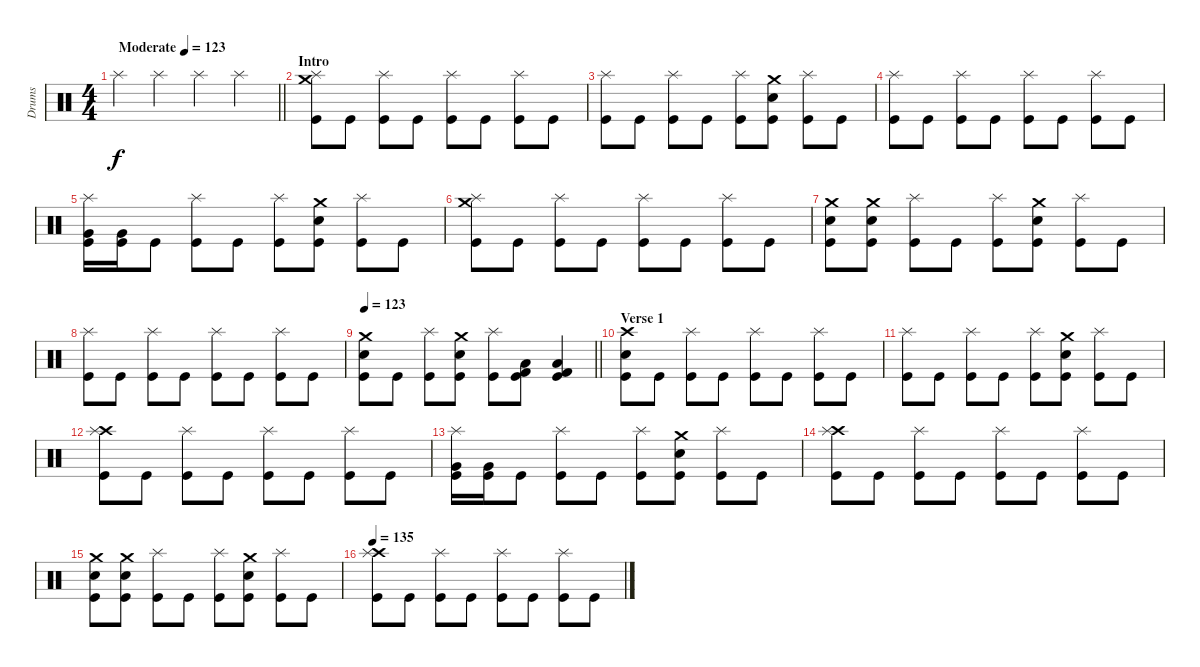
\track ("Drums" "Drums") {instrument percussion}
\staff {score}
\articulation defaults
\ts (4 4)
\tempo (123 "Moderate")
\tempo 117
\tempo (123 "Moderate")
\clef neutral
\barLineRight lightlight
\ks c "Splash (hit)".4{dy f} "Splash (hit)".4 "Splash (hit)".4 "Splash (hit)".4
|
\section ("" "Intro")
("Crash medium (hit)" "Splash (hit)" "Kick (hit)").8 "Kick (hit)".8 ("Splash (hit)" "Kick (hit)").8 "Kick (hit)".8 ("Splash (hit)" "Kick (hit)").8 "Kick (hit)".8 ("Splash (hit)" "Kick (hit)").8 "Kick (hit)".8 |
("Splash (hit)" "Kick (hit)").8 "Kick (hit)".8 ("Splash (hit)" "Kick (hit)").8 "Kick (hit)".8 ("Splash (hit)" "Kick (hit)").8 ("Crash medium (hit)" "Snare (hit) 2" "Kick (hit)").8 ("Splash (hit)" "Kick (hit)").8 "Kick (hit)".8 |
("Splash (hit)" "Kick (hit)").8 "Kick (hit)".8 ("Splash (hit)" "Kick (hit)").8 "Kick (hit)".8 ("Splash (hit)" "Kick (hit)").8 "Kick (hit)".8 ("Splash (hit)" "Kick (hit)").8 "Kick (hit)".8 |
("Splash (hit)" "Very Low Tom (hit)" "Kick (hit)").16 ("Very Low Tom (hit)" "Kick (hit)").16 "Kick (hit)".8 ("Splash (hit)" "Kick (hit)").8 "Kick (hit)".8 ("Splash (hit)" "Kick (hit)").8 ("Crash medium (hit)" "Snare (hit) 2" "Kick (hit)").8 ("Splash (hit)" "Kick (hit)").8 "Kick (hit)".8 |
("Crash medium (hit)" "Splash (hit)" "Kick (hit)").8 "Kick (hit)".8 ("Splash (hit)" "Kick (hit)").8 "Kick (hit)".8 ("Splash (hit)" "Kick (hit)").8 "Kick (hit)".8 ("Splash (hit)" "Kick (hit)").8 "Kick (hit)".8 |
("Crash medium (hit)" "Snare (hit) 2" "Kick (hit)").8 ("Crash medium (hit)" "Snare (hit) 2" "Kick (hit)").8 ("Splash (hit)" "Kick (hit)").8 "Kick (hit)".8 ("Splash (hit)" "Kick (hit)").8 ("Crash medium (hit)" "Snare (hit) 2" "Kick (hit)").8 ("Splash (hit)" "Kick (hit)").8 "Kick (hit)".8 |
("Splash (hit)" "Kick (hit)").8 "Kick (hit)".8 ("Splash (hit)" "Kick (hit)").8 "Kick (hit)".8 ("Splash (hit)" "Kick (hit)").8 "Kick (hit)".8 ("Splash (hit)" "Kick (hit)").8 "Kick (hit)".8 |
\tempo 123
\barLineRight lightlight
("Crash medium (hit)" "Snare (hit) 2" "Kick (hit)").8 "Kick (hit)".8 ("Splash (hit)" "Kick (hit)").8 ("Crash medium (hit)" "Snare (hit) 2" "Kick (hit)").8 ("Splash (hit)" "Kick (hit)").8 ("Low Floor Tom (hit)" "Kick (hit) 2" "Kick (hit)").8 ("Low Floor Tom (hit)" "Kick (hit) 2" "Kick (hit)").4 |
\section ("" "Verse 1")
("Crash high (hit)" "Snare (hit) 2" "Kick (hit)").8 "Kick (hit)".8 ("Splash (hit)" "Kick (hit)").8 "Kick (hit)".8 ("Splash (hit)" "Kick (hit)").8 "Kick (hit)".8 ("Splash (hit)" "Kick (hit)").8 "Kick (hit)".8 |
("Splash (hit)" "Kick (hit)").8 "Kick (hit)".8 ("Splash (hit)" "Kick (hit)").8 "Kick (hit)".8 ("Splash (hit)" "Kick (hit)").8 ("Crash medium (hit)" "Snare (hit) 2" "Kick (hit)").8 ("Splash (hit)" "Kick (hit)").8 "Kick (hit)".8 |
("Crash high (hit)" "Splash (hit)" "Kick (hit)").8 "Kick (hit)".8 ("Splash (hit)" "Kick (hit)").8 "Kick (hit)".8 ("Splash (hit)" "Kick (hit)").8 "Kick (hit)".8 ("Splash (hit)" "Kick (hit)").8 "Kick (hit)".8 |
("Splash (hit)" "Very Low Tom (hit)" "Kick (hit)").16 ("Very Low Tom (hit)" "Kick (hit)").16 "Kick (hit)".8 ("Splash (hit)" "Kick (hit)").8 "Kick (hit)".8 ("Splash (hit)" "Kick (hit)").8 ("Crash medium (hit)" "Snare (hit) 2" "Kick (hit)").8 ("Splash (hit)" "Kick (hit)").8 "Kick (hit)".8 |
("Crash high (hit)" "Splash (hit)" "Kick (hit)").8 "Kick (hit)".8 ("Splash (hit)" "Kick (hit)").8 "Kick (hit)".8 ("Splash (hit)" "Kick (hit)").8 "Kick (hit)".8 ("Splash (hit)" "Kick (hit)").8 "Kick (hit)".8 |
("Crash medium (hit)" "Snare (hit) 2" "Kick (hit)").8 ("Crash medium (hit)" "Snare (hit) 2" "Kick (hit)").8 ("Splash (hit)" "Kick (hit)").8 "Kick (hit)".8 ("Splash (hit)" "Kick (hit)").8 ("Crash medium (hit)" "Snare (hit) 2" "Kick (hit)").8 ("Splash (hit)" "Kick (hit)").8 "Kick (hit)".8 |
\tempo 135
("Crash high (hit)" "Splash (hit)" "Kick (hit)").8 "Kick (hit)".8 ("Splash (hit)" "Kick (hit)").8 "Kick (hit)".8 ("Splash (hit)" "Kick (hit)").8 "Kick (hit)".8 ("Splash (hit)" "Kick (hit)").8 "Kick (hit)".8
